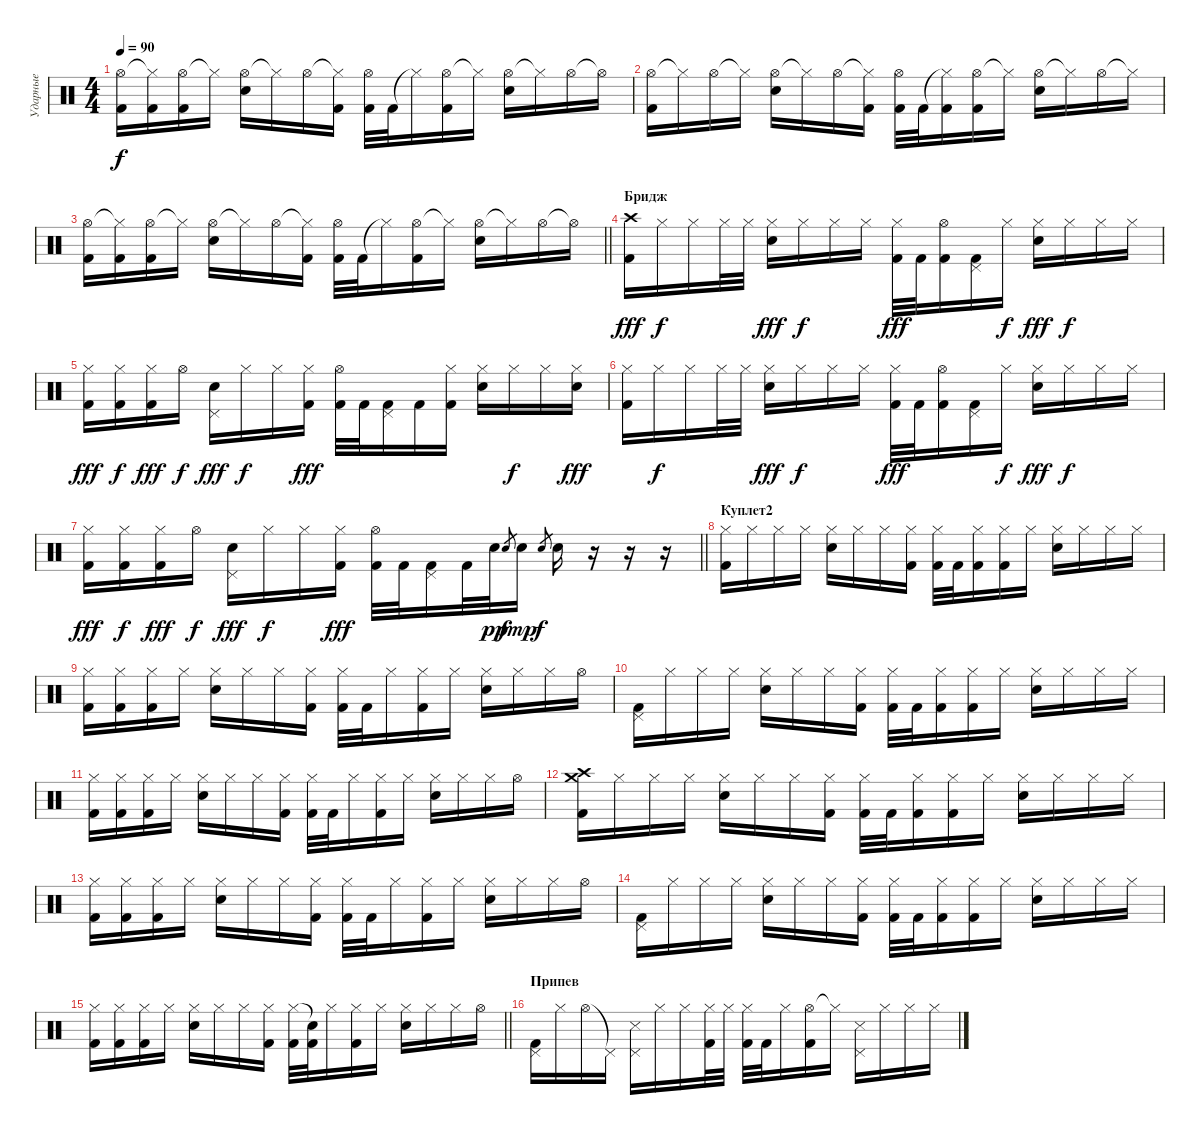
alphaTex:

\track ("Ударные" "Ударные") {instrument percussion}
\staff {score}
\articulation defaults
\ts (4 4)
\tempo 90
\clef neutral
\ks c
("Hi-Hat (open)" "Kick (hit) 2").16{dy f} ("Hi-Hat (closed)"{t} "Kick (hit) 2").16 ("Hi-Hat (open)" "Kick (hit) 2").16 "Hi-Hat (closed)"{t}.16 ("Hi-Hat (open)" "Electric Snare (hit)").16 "Hi-Hat (closed)"{t}.16 "Hi-Hat (open)".16 ("Hi-Hat (closed)"{t} "Kick (hit) 2").16 ("Hi-Hat (open)" "Kick (hit) 2").32 "Kick (hit) 2".32 "Hi-Hat (closed)"{t}.16 ("Hi-Hat (open)" "Kick (hit) 2").16 "Hi-Hat (closed)"{t}.16 ("Hi-Hat (open)" "Electric Snare (hit)").16 "Hi-Hat (closed)"{t}.16 "Hi-Hat (open)".16 "Hi-Hat (open)"{t}.16 |
("Hi-Hat (open)" "Kick (hit) 2").16 "Hi-Hat (closed)"{t}.16 "Hi-Hat (open)".16 "Hi-Hat (closed)"{t}.16 ("Hi-Hat (open)" "Electric Snare (hit)").16 "Hi-Hat (closed)"{t}.16 "Hi-Hat (open)".16 ("Hi-Hat (closed)"{t} "Kick (hit) 2").16 ("Hi-Hat (open)" "Kick (hit) 2").32 "Kick (hit) 2".32 ("Hi-Hat (closed)"{t} "Kick (hit) 2").16 ("Hi-Hat (open)" "Kick (hit) 2").16 "Hi-Hat (closed)"{t}.16 ("Hi-Hat (open)" "Electric Snare (hit)").16 "Hi-Hat (closed)"{t}.16 "Hi-Hat (open)".16 "Hi-Hat (closed)"{t}.16 |
\barLineRight lightlight
("Hi-Hat (open)" "Kick (hit) 2").16 ("Hi-Hat (closed)"{t} "Kick (hit) 2").16 ("Hi-Hat (open)" "Kick (hit) 2").16 "Hi-Hat (closed)"{t}.16 ("Hi-Hat (open)" "Electric Snare (hit)").16 "Hi-Hat (closed)"{t}.16 "Hi-Hat (open)".16 ("Hi-Hat (closed)"{t} "Kick (hit) 2").16 ("Hi-Hat (open)" "Kick (hit) 2").32 "Kick (hit) 2".32 "Hi-Hat (closed)"{t}.16 ("Hi-Hat (open)" "Kick (hit) 2").16 "Hi-Hat (closed)"{t}.16 ("Hi-Hat (open)" "Electric Snare (hit)").16 "Hi-Hat (closed)"{t}.16 "Hi-Hat (open)".16 "Hi-Hat (open)"{t}.16 |
\section ("" "Бридж")
("Crash high (hit)" "Kick (hit) 2").16{dy fff} "Hi-Hat (closed)".16{dy f} "Hi-Hat (closed)".16 "Hi-Hat (closed)".32 "Hi-Hat (closed)".32 ("Hi-Hat (closed)" "Electric Snare (hit)").16{dy fff} "Hi-Hat (closed)".16{dy f} "Hi-Hat (closed)".16 "Hi-Hat (closed)".16 ("Hi-Hat (closed)" "Kick (hit) 2").32{dy fff} "Kick (hit) 2".32 ("Hi-Hat (open)" "Kick (hit) 2").16 ("Pedal Hi-Hat (hit)" "Kick (hit) 2").16 "Hi-Hat (closed)".16{dy f} ("Hi-Hat (closed)" "Electric Snare (hit)").16{dy fff} "Hi-Hat (closed)".16{dy f} "Hi-Hat (closed)".16 "Hi-Hat (closed)".16 |
("Hi-Hat (closed)" "Kick (hit) 2").16{dy fff} ("Hi-Hat (closed)" "Kick (hit) 2").16{dy f} ("Hi-Hat (closed)" "Kick (hit) 2").16{dy fff} "Hi-Hat (open)".16{dy f} ("Pedal Hi-Hat (hit)" "Electric Snare (hit)").16{dy fff} "Hi-Hat (closed)".16{dy f} "Hi-Hat (closed)".16 ("Hi-Hat (closed)" "Kick (hit) 2").16{dy fff} ("Hi-Hat (open)" "Kick (hit) 2").32 "Kick (hit) 2".32 ("Pedal Hi-Hat (hit)" "Kick (hit) 2").16 "Kick (hit) 2".16 ("Hi-Hat (closed)" "Kick (hit) 2").16 ("Hi-Hat (closed)" "Electric Snare (hit)").16 "Hi-Hat (closed)".16{dy f} "Hi-Hat (closed)".16 ("Hi-Hat (closed)" "Electric Snare (hit)").16{dy fff} |
("Hi-Hat (closed)" "Kick (hit) 2").16 "Hi-Hat (closed)".16{dy f} "Hi-Hat (closed)".16 "Hi-Hat (closed)".32 "Hi-Hat (closed)".32 ("Hi-Hat (closed)" "Electric Snare (hit)").16{dy fff} "Hi-Hat (closed)".16{dy f} "Hi-Hat (closed)".16 "Hi-Hat (closed)".16 ("Hi-Hat (closed)" "Kick (hit) 2").32{dy fff} "Kick (hit) 2".32 ("Hi-Hat (open)" "Kick (hit) 2").16 ("Pedal Hi-Hat (hit)" "Kick (hit) 2").16 "Hi-Hat (closed)".16{dy f} ("Hi-Hat (closed)" "Electric Snare (hit)").16{dy fff} "Hi-Hat (closed)".16{dy f} "Hi-Hat (closed)".16 "Hi-Hat (closed)".16 |
\barLineRight lightlight
("Hi-Hat (closed)" "Kick (hit) 2").16{dy fff} ("Hi-Hat (closed)" "Kick (hit) 2").16{dy f} ("Hi-Hat (closed)" "Kick (hit) 2").16{dy fff} "Hi-Hat (open)".16{dy f} ("Pedal Hi-Hat (hit)" "Electric Snare (hit)").16{dy fff} "Hi-Hat (closed)".16{dy f} "Hi-Hat (closed)".16 ("Hi-Hat (closed)" "Kick (hit) 2").16{dy fff} ("Hi-Hat (open)" "Kick (hit) 2").32 "Kick (hit) 2".32 ("Pedal Hi-Hat (hit)" "Kick (hit) 2").16 "Kick (hit) 2".32 "Electric Snare (hit)".32{dy pp} "Electric Snare (hit)".8{gr dy f} "Electric Snare (hit)".16{dy mp} "Electric Snare (hit)".8{gr dy f} "Electric Snare (hit)".16 r.16 r.16 r.16 |
\section ("" "Куплет2")
("Hi-Hat (closed)" "Kick (hit) 2").16 "Hi-Hat (closed)".16 "Hi-Hat (closed)".16 "Hi-Hat (closed)".16 ("Hi-Hat (closed)" "Electric Snare (hit)").16 "Hi-Hat (closed)".16 "Hi-Hat (closed)".16 ("Hi-Hat (closed)" "Kick (hit) 2").16 ("Hi-Hat (closed)" "Kick (hit) 2").32 "Kick (hit) 2".32 ("Hi-Hat (closed)" "Kick (hit) 2").16 ("Hi-Hat (closed)" "Kick (hit) 2").16 "Hi-Hat (closed)".16 ("Hi-Hat (closed)" "Electric Snare (hit)").16 "Hi-Hat (closed)".16 "Hi-Hat (closed)".16 "Hi-Hat (closed)".16 |
("Hi-Hat (closed)" "Kick (hit) 2").16 ("Hi-Hat (closed)" "Kick (hit) 2").16 ("Hi-Hat (closed)" "Kick (hit) 2").16 "Hi-Hat (closed)".16 ("Hi-Hat (closed)" "Electric Snare (hit)").16 "Hi-Hat (closed)".16 "Hi-Hat (closed)".16 ("Hi-Hat (closed)" "Kick (hit) 2").16 ("Hi-Hat (closed)" "Kick (hit) 2").32 "Kick (hit) 2".32 "Hi-Hat (closed)".16 ("Hi-Hat (closed)" "Kick (hit) 2").16 "Hi-Hat (closed)".16 ("Hi-Hat (closed)" "Electric Snare (hit)").16 "Hi-Hat (closed)".16 "Hi-Hat (closed)".16 "Hi-Hat (open)".16 |
("Pedal Hi-Hat (hit)" "Kick (hit) 2").16 "Hi-Hat (closed)".16 "Hi-Hat (closed)".16 "Hi-Hat (closed)".16 ("Hi-Hat (closed)" "Electric Snare (hit)").16 "Hi-Hat (closed)".16 "Hi-Hat (closed)".16 ("Hi-Hat (closed)" "Kick (hit) 2").16 ("Hi-Hat (closed)" "Kick (hit) 2").32 "Kick (hit) 2".32 ("Hi-Hat (closed)" "Kick (hit) 2").16 ("Hi-Hat (closed)" "Kick (hit) 2").16 "Hi-Hat (closed)".16 ("Hi-Hat (closed)" "Electric Snare (hit)").16 "Hi-Hat (closed)".16 "Hi-Hat (closed)".16 "Hi-Hat (closed)".16 |
("Hi-Hat (closed)" "Kick (hit) 2").16 ("Hi-Hat (closed)" "Kick (hit) 2").16 ("Hi-Hat (closed)" "Kick (hit) 2").16 "Hi-Hat (closed)".16 ("Hi-Hat (closed)" "Electric Snare (hit)").16 "Hi-Hat (closed)".16 "Hi-Hat (closed)".16 ("Hi-Hat (closed)" "Kick (hit) 2").16 ("Hi-Hat (closed)" "Kick (hit) 2").32 "Kick (hit) 2".32 "Hi-Hat (closed)".16 ("Hi-Hat (closed)" "Kick (hit) 2").16 "Hi-Hat (closed)".16 ("Hi-Hat (closed)" "Electric Snare (hit)").16 "Hi-Hat (closed)".16 "Hi-Hat (closed)".16 "Hi-Hat (open)".16 |
("Crash high (hit)" "Crash medium (hit)" "Kick (hit) 2").16 "Hi-Hat (closed)".16 "Hi-Hat (closed)".16 "Hi-Hat (closed)".16 ("Hi-Hat (closed)" "Electric Snare (hit)").16 "Hi-Hat (closed)".16 "Hi-Hat (closed)".16 ("Hi-Hat (closed)" "Kick (hit) 2").16 ("Hi-Hat (closed)" "Kick (hit) 2").32 "Kick (hit) 2".32 ("Hi-Hat (closed)" "Kick (hit) 2").16 ("Hi-Hat (closed)" "Kick (hit) 2").16 "Hi-Hat (closed)".16 ("Hi-Hat (closed)" "Electric Snare (hit)").16 "Hi-Hat (closed)".16 "Hi-Hat (closed)".16 "Hi-Hat (closed)".16 |
("Hi-Hat (closed)" "Kick (hit) 2").16 ("Hi-Hat (closed)" "Kick (hit) 2").16 ("Hi-Hat (closed)" "Kick (hit) 2").16 "Hi-Hat (closed)".16 ("Hi-Hat (closed)" "Electric Snare (hit)").16 "Hi-Hat (closed)".16 "Hi-Hat (closed)".16 ("Hi-Hat (closed)" "Kick (hit) 2").16 ("Hi-Hat (closed)" "Kick (hit) 2").32 "Kick (hit) 2".32 "Hi-Hat (closed)".16 ("Hi-Hat (closed)" "Kick (hit) 2").16 "Hi-Hat (closed)".16 ("Hi-Hat (closed)" "Electric Snare (hit)").16 "Hi-Hat (closed)".16 "Hi-Hat (closed)".16 "Hi-Hat (open)".16 |
("Pedal Hi-Hat (hit)" "Kick (hit) 2").16 "Hi-Hat (closed)".16 "Hi-Hat (closed)".16 "Hi-Hat (closed)".16 ("Hi-Hat (closed)" "Electric Snare (hit)").16 "Hi-Hat (closed)".16 "Hi-Hat (closed)".16 ("Hi-Hat (closed)" "Kick (hit) 2").16 ("Hi-Hat (closed)" "Kick (hit) 2").32 "Kick (hit) 2".32 ("Hi-Hat (closed)" "Kick (hit) 2").16 ("Hi-Hat (closed)" "Kick (hit) 2").16 "Hi-Hat (closed)".16 ("Hi-Hat (closed)" "Electric Snare (hit)").16 "Hi-Hat (closed)".16 "Hi-Hat (closed)".16 "Hi-Hat (closed)".16 |
\barLineRight lightlight
("Hi-Hat (closed)" "Kick (hit) 2").16 ("Hi-Hat (closed)" "Kick (hit) 2").16 ("Hi-Hat (closed)" "Kick (hit) 2").16 "Hi-Hat (closed)".16 ("Hi-Hat (closed)" "Electric Snare (hit)").16 "Hi-Hat (closed)".16 "Hi-Hat (closed)".16 ("Hi-Hat (closed)" "Kick (hit) 2").16 ("Hi-Hat (closed)" "Kick (hit) 2").32 ("Snare (hit)"{t} "Kick (hit) 2").32 "Hi-Hat (closed)".16 ("Hi-Hat (closed)" "Kick (hit) 2").16 "Hi-Hat (closed)".16 ("Hi-Hat (closed)" "Electric Snare (hit)").16 "Hi-Hat (closed)".16 "Hi-Hat (closed)".16 "Hi-Hat (open)".16 |
\section ("" "Припев")
("Pedal Hi-Hat (hit)" "Kick (hit) 2").16 "Hi-Hat (closed)".16 "Hi-Hat (open)".16 "Pedal Hi-Hat (hit)"{t}.16 ("Pedal Hi-Hat (hit)" "Snare (side stick) 3").16 "Hi-Hat (closed)".16 "Hi-Hat (closed)".16 ("Hi-Hat (closed)" "Kick (hit) 2").32 "Hi-Hat (closed)".32 ("Hi-Hat (closed)" "Kick (hit) 2").32 "Kick (hit) 2".32 "Hi-Hat (closed)".16 ("Hi-Hat (open)" "Kick (hit) 2").16 "Hi-Hat (closed)"{t}.16 ("Pedal Hi-Hat (hit)" "Snare (side stick) 3").16 "Hi-Hat (closed)".16 "Hi-Hat (closed)".16 "Hi-Hat (closed)".16
